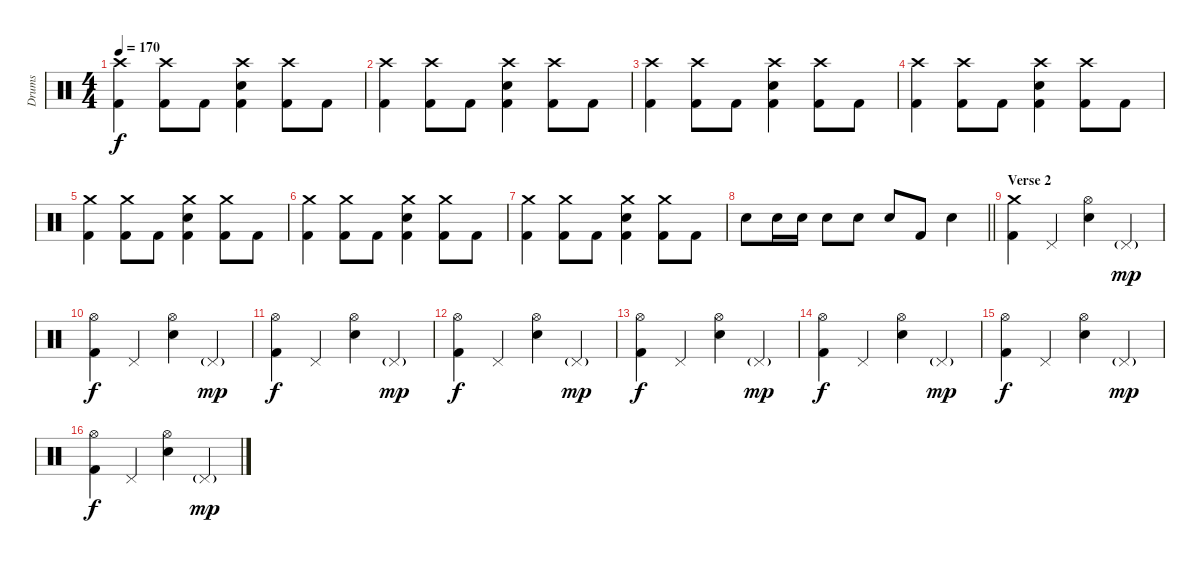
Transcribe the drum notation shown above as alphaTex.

\track ("Drums" "Drums") {instrument percussion}
\staff {score}
\articulation defaults
\ts (4 4)
\tempo 170
\clef neutral
\ks c
("Crash high (hit)" "Kick (hit) 2").4{dy f} ("Crash high (hit)" "Kick (hit) 2").8 "Kick (hit) 2".8 ("Crash high (hit)" "Electric Snare (hit)" "Kick (hit) 2").4 ("Crash high (hit)" "Kick (hit) 2").8 "Kick (hit) 2".8 |
("Crash high (hit)" "Kick (hit) 2").4 ("Crash high (hit)" "Kick (hit) 2").8 "Kick (hit) 2".8 ("Crash high (hit)" "Electric Snare (hit)" "Kick (hit) 2").4 ("Crash high (hit)" "Kick (hit) 2").8 "Kick (hit) 2".8 |
("Crash high (hit)" "Kick (hit) 2").4 ("Crash high (hit)" "Kick (hit) 2").8 "Kick (hit) 2".8 ("Crash high (hit)" "Electric Snare (hit)" "Kick (hit) 2").4 ("Crash high (hit)" "Kick (hit) 2").8 "Kick (hit) 2".8 |
("Crash high (hit)" "Kick (hit) 2").4 ("Crash high (hit)" "Kick (hit) 2").8 "Kick (hit) 2".8 ("Crash high (hit)" "Electric Snare (hit)" "Kick (hit) 2").4 ("Crash high (hit)" "Kick (hit) 2").8 "Kick (hit) 2".8 |
("Crash medium (hit)" "Kick (hit) 2").4 ("Crash medium (hit)" "Kick (hit) 2").8 "Kick (hit) 2".8 ("Crash medium (hit)" "Electric Snare (hit)" "Kick (hit) 2").4 ("Crash medium (hit)" "Kick (hit) 2").8 "Kick (hit) 2".8 |
("Crash medium (hit)" "Kick (hit) 2").4 ("Crash medium (hit)" "Kick (hit) 2").8 "Kick (hit) 2".8 ("Crash medium (hit)" "Electric Snare (hit)" "Kick (hit) 2").4 ("Crash medium (hit)" "Kick (hit) 2").8 "Kick (hit) 2".8 |
("Crash medium (hit)" "Kick (hit) 2").4 ("Crash medium (hit)" "Kick (hit) 2").8 "Kick (hit) 2".8 ("Crash medium (hit)" "Electric Snare (hit)" "Kick (hit) 2").4 ("Crash medium (hit)" "Kick (hit) 2").8 "Kick (hit) 2".8 |
\barLineRight lightlight "Electric Snare (hit)".8 "Electric Snare (hit)".16 "Electric Snare (hit)".16 "Electric Snare (hit)".8 "Electric Snare (hit)".8 "Electric Snare (hit)".8 "Kick (hit) 2".8 "Electric Snare (hit)".4
|
\section ("" "Verse 2")
("Crash medium (hit)" "Kick (hit) 2").4 "Pedal Hi-Hat (hit)".4 ("Hi-Hat (open)" "Electric Snare (hit)").4 "Pedal Hi-Hat (hit)"{g}.4{dy mp} |
("Hi-Hat (open)" "Kick (hit) 2").4{dy f} "Pedal Hi-Hat (hit)".4 ("Hi-Hat (open)" "Electric Snare (hit)").4 "Pedal Hi-Hat (hit)"{g}.4{dy mp} |
("Hi-Hat (open)" "Kick (hit) 2").4{dy f} "Pedal Hi-Hat (hit)".4 ("Hi-Hat (open)" "Electric Snare (hit)").4 "Pedal Hi-Hat (hit)"{g}.4{dy mp} |
("Hi-Hat (open)" "Kick (hit) 2").4{dy f} "Pedal Hi-Hat (hit)".4 ("Hi-Hat (open)" "Electric Snare (hit)").4 "Pedal Hi-Hat (hit)"{g}.4{dy mp} |
("Hi-Hat (open)" "Kick (hit) 2").4{dy f} "Pedal Hi-Hat (hit)".4 ("Hi-Hat (open)" "Electric Snare (hit)").4 "Pedal Hi-Hat (hit)"{g}.4{dy mp} |
("Hi-Hat (open)" "Kick (hit) 2").4{dy f} "Pedal Hi-Hat (hit)".4 ("Hi-Hat (open)" "Electric Snare (hit)").4 "Pedal Hi-Hat (hit)"{g}.4{dy mp} |
("Hi-Hat (open)" "Kick (hit) 2").4{dy f} "Pedal Hi-Hat (hit)".4 ("Hi-Hat (open)" "Electric Snare (hit)").4 "Pedal Hi-Hat (hit)"{g}.4{dy mp} |
("Hi-Hat (open)" "Kick (hit) 2").4{dy f} "Pedal Hi-Hat (hit)".4 ("Hi-Hat (open)" "Electric Snare (hit)").4 "Pedal Hi-Hat (hit)"{g}.4{dy mp}
